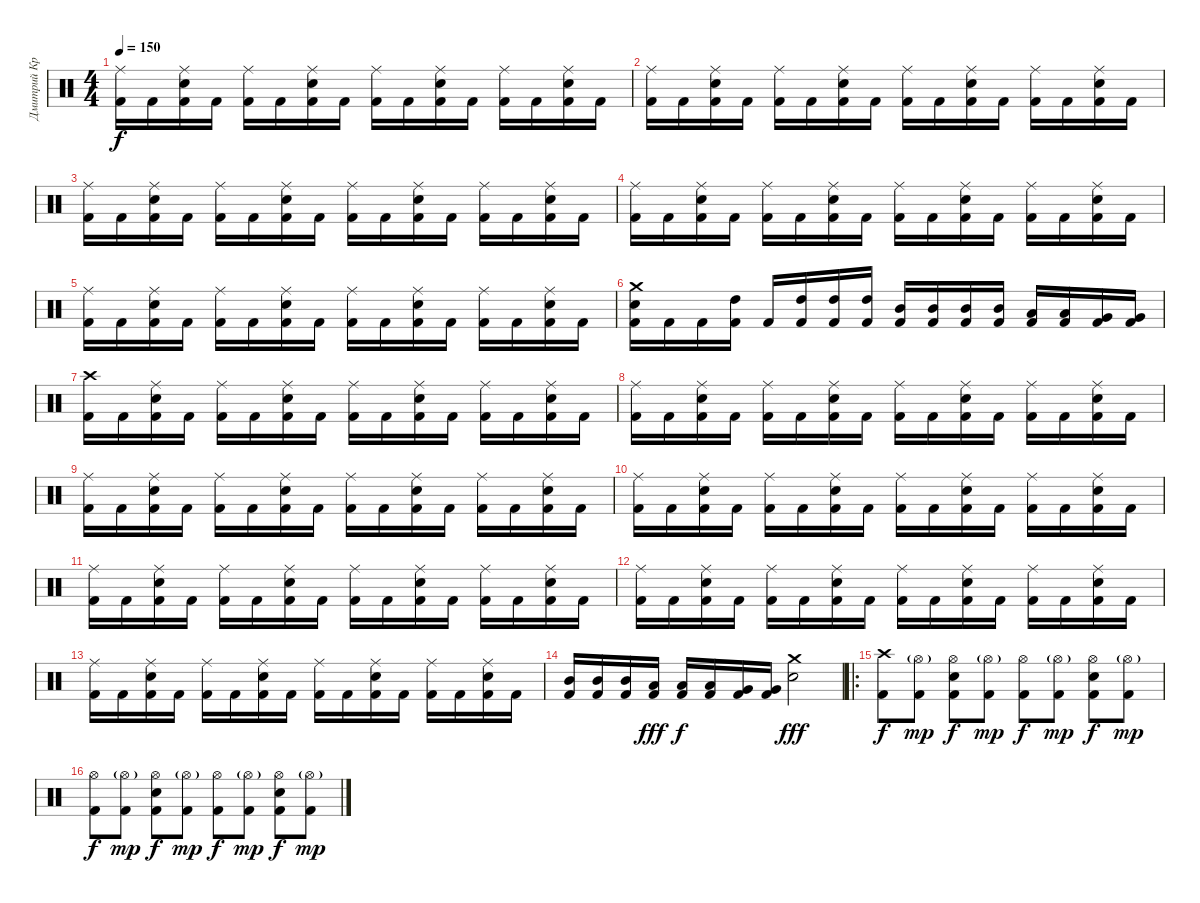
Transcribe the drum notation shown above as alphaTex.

\track ("Дмитрий Кривенков" "Дмитрий Кр") {instrument percussion}
\staff {score}
\articulation defaults
\ts (4 4)
\tempo 150
\clef neutral
\ks c
("Ride (middle)" "Kick (hit) 2").16{dy f} "Kick (hit) 2".16 ("Ride (middle)" "Electric Snare (hit)" "Kick (hit) 2").16 "Kick (hit) 2".16 ("Ride (middle)" "Kick (hit) 2").16 "Kick (hit) 2".16 ("Ride (middle)" "Electric Snare (hit)" "Kick (hit) 2").16 "Kick (hit) 2".16 ("Ride (middle)" "Kick (hit) 2").16 "Kick (hit) 2".16 ("Ride (middle)" "Electric Snare (hit)" "Kick (hit) 2").16 "Kick (hit) 2".16 ("Ride (middle)" "Kick (hit) 2").16 "Kick (hit) 2".16 ("Ride (middle)" "Electric Snare (hit)" "Kick (hit) 2").16 "Kick (hit) 2".16 |
("Ride (middle)" "Kick (hit) 2").16 "Kick (hit) 2".16 ("Ride (middle)" "Electric Snare (hit)" "Kick (hit) 2").16 "Kick (hit) 2".16 ("Ride (middle)" "Kick (hit) 2").16 "Kick (hit) 2".16 ("Ride (middle)" "Electric Snare (hit)" "Kick (hit) 2").16 "Kick (hit) 2".16 ("Ride (middle)" "Kick (hit) 2").16 "Kick (hit) 2".16 ("Ride (middle)" "Electric Snare (hit)" "Kick (hit) 2").16 "Kick (hit) 2".16 ("Ride (middle)" "Kick (hit) 2").16 "Kick (hit) 2".16 ("Ride (middle)" "Electric Snare (hit)" "Kick (hit) 2").16 "Kick (hit) 2".16 |
("Ride (middle)" "Kick (hit) 2").16 "Kick (hit) 2".16 ("Ride (middle)" "Electric Snare (hit)" "Kick (hit) 2").16 "Kick (hit) 2".16 ("Ride (middle)" "Kick (hit) 2").16 "Kick (hit) 2".16 ("Ride (middle)" "Electric Snare (hit)" "Kick (hit) 2").16 "Kick (hit) 2".16 ("Ride (middle)" "Kick (hit) 2").16 "Kick (hit) 2".16 ("Ride (middle)" "Electric Snare (hit)" "Kick (hit) 2").16 "Kick (hit) 2".16 ("Ride (middle)" "Kick (hit) 2").16 "Kick (hit) 2".16 ("Ride (middle)" "Electric Snare (hit)" "Kick (hit) 2").16 "Kick (hit) 2".16 |
("Ride (middle)" "Kick (hit) 2").16 "Kick (hit) 2".16 ("Ride (middle)" "Electric Snare (hit)" "Kick (hit) 2").16 "Kick (hit) 2".16 ("Ride (middle)" "Kick (hit) 2").16 "Kick (hit) 2".16 ("Ride (middle)" "Electric Snare (hit)" "Kick (hit) 2").16 "Kick (hit) 2".16 ("Ride (middle)" "Kick (hit) 2").16 "Kick (hit) 2".16 ("Ride (middle)" "Electric Snare (hit)" "Kick (hit) 2").16 "Kick (hit) 2".16 ("Ride (middle)" "Kick (hit) 2").16 "Kick (hit) 2".16 ("Ride (middle)" "Electric Snare (hit)" "Kick (hit) 2").16 "Kick (hit) 2".16 |
("Ride (middle)" "Kick (hit) 2").16 "Kick (hit) 2".16 ("Ride (middle)" "Electric Snare (hit)" "Kick (hit) 2").16 "Kick (hit) 2".16 ("Ride (middle)" "Kick (hit) 2").16 "Kick (hit) 2".16 ("Ride (middle)" "Electric Snare (hit)" "Kick (hit) 2").16 "Kick (hit) 2".16 ("Ride (middle)" "Kick (hit) 2").16 "Kick (hit) 2".16 ("Ride (middle)" "Electric Snare (hit)" "Kick (hit) 2").16 "Kick (hit) 2".16 ("Ride (middle)" "Kick (hit) 2").16 "Kick (hit) 2".16 ("Ride (middle)" "Electric Snare (hit)" "Kick (hit) 2").16 "Kick (hit) 2".16 |
("Crash medium (hit)" "Electric Snare (hit)" "Kick (hit) 2").16 "Kick (hit) 2".16 "Kick (hit) 2".16 ("High Tom (hit)" "Kick (hit) 2").16 "Kick (hit) 2".16 ("High Tom (hit)" "Kick (hit) 2").16 ("High Tom (hit)" "Kick (hit) 2").16 ("High Tom (hit)" "Kick (hit) 2").16 ("Mid Tom (hit)" "Kick (hit) 2").16 ("Mid Tom (hit)" "Kick (hit) 2").16 ("Mid Tom (hit)" "Kick (hit) 2").16 ("Mid Tom (hit)" "Kick (hit) 2").16 ("Low Tom (hit)" "Kick (hit) 2").16 ("Low Tom (hit)" "Kick (hit) 2").16 ("Very Low Tom (hit)" "Kick (hit) 2").16 ("Very Low Tom (hit)" "Kick (hit) 2").16 |
("Crash high (hit)" "Kick (hit) 2").16 "Kick (hit) 2".16 ("Ride (middle)" "Electric Snare (hit)" "Kick (hit) 2").16 "Kick (hit) 2".16 ("Ride (middle)" "Kick (hit) 2").16 "Kick (hit) 2".16 ("Ride (middle)" "Electric Snare (hit)" "Kick (hit) 2").16 "Kick (hit) 2".16 ("Ride (middle)" "Kick (hit) 2").16 "Kick (hit) 2".16 ("Ride (middle)" "Electric Snare (hit)" "Kick (hit) 2").16 "Kick (hit) 2".16 ("Ride (middle)" "Kick (hit) 2").16 "Kick (hit) 2".16 ("Ride (middle)" "Electric Snare (hit)" "Kick (hit) 2").16 "Kick (hit) 2".16 |
("Ride (middle)" "Kick (hit) 2").16 "Kick (hit) 2".16 ("Ride (middle)" "Electric Snare (hit)" "Kick (hit) 2").16 "Kick (hit) 2".16 ("Ride (middle)" "Kick (hit) 2").16 "Kick (hit) 2".16 ("Ride (middle)" "Electric Snare (hit)" "Kick (hit) 2").16 "Kick (hit) 2".16 ("Ride (middle)" "Kick (hit) 2").16 "Kick (hit) 2".16 ("Ride (middle)" "Electric Snare (hit)" "Kick (hit) 2").16 "Kick (hit) 2".16 ("Ride (middle)" "Kick (hit) 2").16 "Kick (hit) 2".16 ("Ride (middle)" "Electric Snare (hit)" "Kick (hit) 2").16 "Kick (hit) 2".16 |
("Ride (middle)" "Kick (hit) 2").16 "Kick (hit) 2".16 ("Ride (middle)" "Electric Snare (hit)" "Kick (hit) 2").16 "Kick (hit) 2".16 ("Ride (middle)" "Kick (hit) 2").16 "Kick (hit) 2".16 ("Ride (middle)" "Electric Snare (hit)" "Kick (hit) 2").16 "Kick (hit) 2".16 ("Ride (middle)" "Kick (hit) 2").16 "Kick (hit) 2".16 ("Ride (middle)" "Electric Snare (hit)" "Kick (hit) 2").16 "Kick (hit) 2".16 ("Ride (middle)" "Kick (hit) 2").16 "Kick (hit) 2".16 ("Ride (middle)" "Electric Snare (hit)" "Kick (hit) 2").16 "Kick (hit) 2".16 |
("Ride (middle)" "Kick (hit) 2").16 "Kick (hit) 2".16 ("Ride (middle)" "Electric Snare (hit)" "Kick (hit) 2").16 "Kick (hit) 2".16 ("Ride (middle)" "Kick (hit) 2").16 "Kick (hit) 2".16 ("Ride (middle)" "Electric Snare (hit)" "Kick (hit) 2").16 "Kick (hit) 2".16 ("Ride (middle)" "Kick (hit) 2").16 "Kick (hit) 2".16 ("Ride (middle)" "Electric Snare (hit)" "Kick (hit) 2").16 "Kick (hit) 2".16 ("Ride (middle)" "Kick (hit) 2").16 "Kick (hit) 2".16 ("Ride (middle)" "Electric Snare (hit)" "Kick (hit) 2").16 "Kick (hit) 2".16 |
("Ride (middle)" "Kick (hit) 2").16 "Kick (hit) 2".16 ("Ride (middle)" "Electric Snare (hit)" "Kick (hit) 2").16 "Kick (hit) 2".16 ("Ride (middle)" "Kick (hit) 2").16 "Kick (hit) 2".16 ("Ride (middle)" "Electric Snare (hit)" "Kick (hit) 2").16 "Kick (hit) 2".16 ("Ride (middle)" "Kick (hit) 2").16 "Kick (hit) 2".16 ("Ride (middle)" "Electric Snare (hit)" "Kick (hit) 2").16 "Kick (hit) 2".16 ("Ride (middle)" "Kick (hit) 2").16 "Kick (hit) 2".16 ("Ride (middle)" "Electric Snare (hit)" "Kick (hit) 2").16 "Kick (hit) 2".16 |
("Ride (middle)" "Kick (hit) 2").16 "Kick (hit) 2".16 ("Ride (middle)" "Electric Snare (hit)" "Kick (hit) 2").16 "Kick (hit) 2".16 ("Ride (middle)" "Kick (hit) 2").16 "Kick (hit) 2".16 ("Ride (middle)" "Electric Snare (hit)" "Kick (hit) 2").16 "Kick (hit) 2".16 ("Ride (middle)" "Kick (hit) 2").16 "Kick (hit) 2".16 ("Ride (middle)" "Electric Snare (hit)" "Kick (hit) 2").16 "Kick (hit) 2".16 ("Ride (middle)" "Kick (hit) 2").16 "Kick (hit) 2".16 ("Ride (middle)" "Electric Snare (hit)" "Kick (hit) 2").16 "Kick (hit) 2".16 |
("Ride (middle)" "Kick (hit) 2").16 "Kick (hit) 2".16 ("Ride (middle)" "Electric Snare (hit)" "Kick (hit) 2").16 "Kick (hit) 2".16 ("Ride (middle)" "Kick (hit) 2").16 "Kick (hit) 2".16 ("Ride (middle)" "Electric Snare (hit)" "Kick (hit) 2").16 "Kick (hit) 2".16 ("Ride (middle)" "Kick (hit) 2").16 "Kick (hit) 2".16 ("Ride (middle)" "Electric Snare (hit)" "Kick (hit) 2").16 "Kick (hit) 2".16 ("Ride (middle)" "Kick (hit) 2").16 "Kick (hit) 2".16 ("Ride (middle)" "Electric Snare (hit)" "Kick (hit) 2").16 "Kick (hit) 2".16 |
("Mid Tom (hit)" "Kick (hit) 2").16 ("Mid Tom (hit)" "Kick (hit) 2").16 ("Mid Tom (hit)" "Kick (hit) 2").16 ("Low Tom (hit)" "Kick (hit) 2").16{dy fff} ("Low Tom (hit)" "Kick (hit) 2").16{dy f} ("Low Tom (hit)" "Kick (hit) 2").16 ("Very Low Tom (hit)" "Kick (hit) 2").16 ("Very Low Tom (hit)" "Kick (hit) 2").16 ("Crash medium (hit)" "Electric Snare (hit)").2{dy fff} |
\ro
("Crash high (hit)" "Kick (hit) 2").8{dy f} ("Hi-Hat (open)"{g} "Kick (hit) 2").8{dy mp} ("Hi-Hat (open)" "Electric Snare (hit)" "Kick (hit) 2").8{dy f} ("Hi-Hat (open)"{g} "Kick (hit) 2").8{dy mp} ("Hi-Hat (open)" "Kick (hit) 2").8{dy f} ("Hi-Hat (open)"{g} "Kick (hit) 2").8{dy mp} ("Hi-Hat (open)" "Electric Snare (hit)" "Kick (hit) 2").8{dy f} ("Hi-Hat (open)"{g} "Kick (hit) 2").8{dy mp} |
("Hi-Hat (open)" "Kick (hit) 2").8{dy f} ("Hi-Hat (open)"{g} "Kick (hit) 2").8{dy mp} ("Hi-Hat (open)" "Electric Snare (hit)" "Kick (hit) 2").8{dy f} ("Hi-Hat (open)"{g} "Kick (hit) 2").8{dy mp} ("Hi-Hat (open)" "Kick (hit) 2").8{dy f} ("Hi-Hat (open)"{g} "Kick (hit) 2").8{dy mp} ("Hi-Hat (open)" "Electric Snare (hit)" "Kick (hit) 2").8{dy f} ("Hi-Hat (open)"{g} "Kick (hit) 2").8{dy mp}
